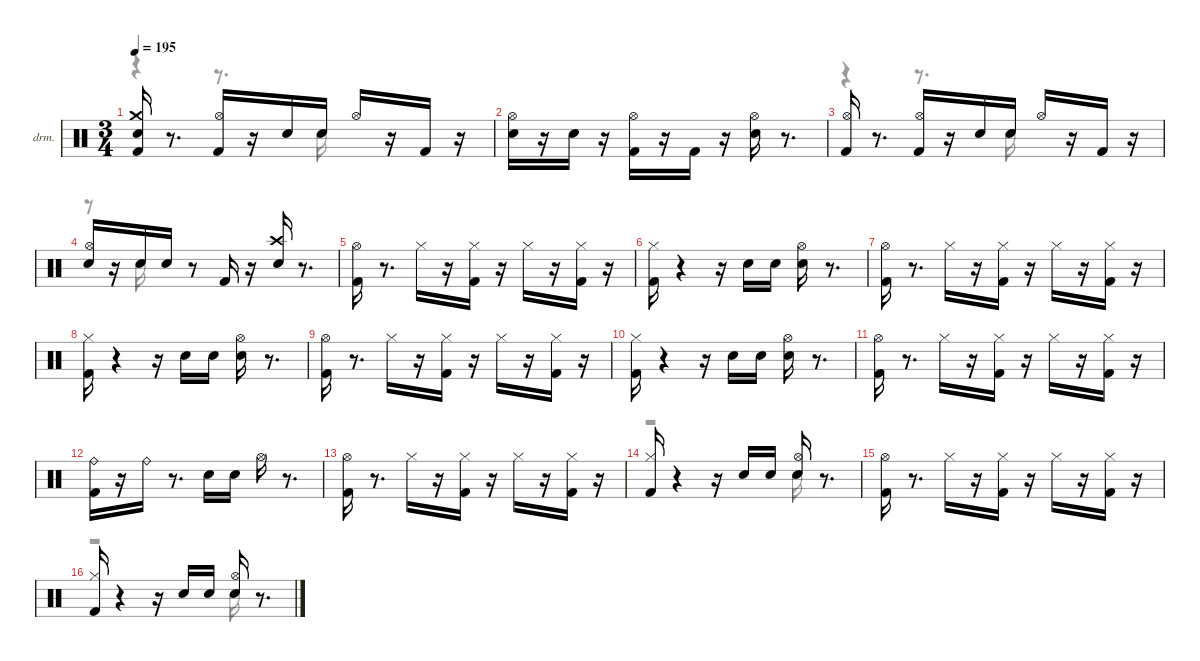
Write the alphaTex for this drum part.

\hideDynamics
\bracketExtendMode nobrackets
\firstSystemTrackNameOrientation horizontal
\otherSystemsTrackNameOrientation horizontal
\track ("EZdrummer 3" "drm.") {instrument percussion}
\staff {score}
\articulation defaults
\voice
\ts (3 4)
\tempo 195
\clef neutral
\ks aminor
("Kick (hit) 2" "Snare (hit) 2" "Crash medium (hit)").16{dy ff beam Up} r.8{d beam Up} ("Kick (hit) 2" "Hi-Hat (open)"{acc #}).16{dy mf beam Up} r.16{beam Up} "Snare (hit) 2".16{dy f beam Up} "Snare (hit) 2".16{dy ppp beam Up} "Hi-Hat (open)"{acc #}.16{dy mf beam Up} r.16{beam Up} "Kick (hit) 2".16{dy f beam Up} r.16{beam Up} |
("Snare (hit) 2" "Hi-Hat (open)"{acc #}).16{dy ff beam Down} r.16{beam Down} "Snare (hit) 2".16{dy ppp beam Down} r.16{beam Down} ("Kick (hit) 2" "Hi-Hat (open)"{acc #}).16{beam Down} r.16{beam Down} "Kick (hit) 2".16{dy ff beam Up} r.16{beam Up} ("Snare (hit) 2" "Hi-Hat (open)"{acc #}).16{dy f beam Down} r.8{d beam Down} |
("Kick (hit) 2" "Hi-Hat (open)"{acc #}).16{dy fff beam Up} r.8{d beam Up} ("Kick (hit) 2" "Hi-Hat (open)"{acc #}).16{dy f beam Up} r.16{beam Up} "Snare (hit) 2".16{beam Up} "Snare (hit) 2".16{dy ppp beam Up} "Hi-Hat (open)"{acc #}.16{dy ff beam Up} r.16{beam Up} "Kick (hit) 2".16{dy f beam Up} r.16{beam Up} |
("Snare (hit) 2" "Hi-Hat (open)"{acc #}).16{dy fff beam Up} r.16{beam Up} "Snare (hit) 2".16{dy f beam Up} "Snare (hit) 2".16{dy mp beam Up} r.8{beam Up} "Kick (hit) 2".16{dy ff beam Up} r.16{beam Up} ("Snare (hit) 2" "Crash high (hit)"{acc #}).16{dy fff beam Up} r.8{d beam Up} |
("Kick (hit) 2" "Hi-Hat (open)"{acc #}).16{dy ff beam Down} r.8{d beam Down} "Hi-Hat (closed)"{acc #}.16{dy f beam Down} r.16{beam Down} ("Kick (hit) 2" "Hi-Hat (closed)"{acc #}).16{dy ppp beam Down} r.16{beam Down} "Hi-Hat (closed)"{acc #}.16{dy f beam Down} r.16{beam Down} ("Kick (hit) 2" "Hi-Hat (closed)"{acc #}).16{dy mp beam Down} r.16{beam Down} |
("Kick (hit) 2" "Hi-Hat (closed)"{acc #}).16{dy ff beam Down} r.4{beam Down} r.16{beam Down} "Snare (hit) 2".16{dy pp beam Down} "Snare (hit) 2".16{dy ppp beam Down} ("Snare (hit) 2" "Hi-Hat (open)"{acc #}).16{dy ff beam Down} r.8{d beam Down} |
("Kick (hit) 2" "Hi-Hat (open)"{acc #}).16{beam Down} r.8{d beam Down} "Hi-Hat (closed)"{acc #}.16{dy f beam Down} r.16{beam Down} ("Kick (hit) 2" "Hi-Hat (closed)"{acc #}).16{beam Down} r.16{beam Down} "Hi-Hat (closed)"{acc #}.16{beam Down} r.16{beam Down} ("Kick (hit) 2" "Hi-Hat (closed)"{acc #}).16{dy mp beam Down} r.16{beam Down} |
("Kick (hit) 2" "Hi-Hat (closed)"{acc #}).16{dy ff beam Down} r.4{beam Down} r.16{beam Down} "Snare (hit) 2".16{dy pp beam Down} "Snare (hit) 2".16{dy ppp beam Down} ("Snare (hit) 2" "Hi-Hat (open)"{acc #}).16{dy ff beam Down} r.8{d beam Down} |
("Kick (hit) 2" "Hi-Hat (open)"{acc #}).16{beam Down} r.8{d beam Down} "Hi-Hat (closed)"{acc #}.16{dy f beam Down} r.16{beam Down} ("Kick (hit) 2" "Hi-Hat (closed)"{acc #}).16{dy ppp beam Down} r.16{beam Down} "Hi-Hat (closed)"{acc #}.16{dy f beam Down} r.16{beam Down} ("Kick (hit) 2" "Hi-Hat (closed)"{acc #}).16{dy ppp beam Down} r.16{beam Down} |
("Kick (hit) 2" "Hi-Hat (closed)"{acc #}).16{dy ff beam Down} r.4{beam Down} r.16{beam Down} "Snare (hit) 2".16{dy pp beam Down} "Snare (hit) 2".16{dy ppp beam Down} ("Snare (hit) 2" "Hi-Hat (open)"{acc #}).16{dy ff beam Down} r.8{d beam Down} |
("Kick (hit) 2" "Hi-Hat (open)"{acc #}).16{beam Down} r.8{d beam Down} "Hi-Hat (closed)"{acc #}.16{dy f beam Down} r.16{beam Down} ("Kick (hit) 2" "Hi-Hat (closed)"{acc #}).16{dy ppp beam Down} r.16{beam Down} "Hi-Hat (closed)"{acc #}.16{dy f beam Down} r.16{beam Down} ("Kick (hit) 2" "Hi-Hat (closed)"{acc #}).16{dy mp beam Down} r.16{beam Down} |
("Kick (hit) 2" "Ride (bell)").16{dy ff beam Down} r.16{beam Down} "Ride (bell)".16{beam Down} r.8{d beam Down} "Snare (hit) 2".16{dy f beam Down} "Snare (hit) 2".16{dy mp beam Down} "Hi-Hat (open)"{acc #}.16{dy ff beam Down} r.8{d beam Down} |
("Kick (hit) 2" "Hi-Hat (open)"{acc #}).16{beam Down} r.8{d beam Down} "Hi-Hat (closed)"{acc #}.16{dy f beam Down} r.16{beam Down} ("Kick (hit) 2" "Hi-Hat (closed)"{acc #}).16{beam Down} r.16{beam Down} "Hi-Hat (closed)"{acc #}.16{beam Down} r.16{beam Down} ("Kick (hit) 2" "Hi-Hat (closed)"{acc #}).16{dy mp beam Down} r.16{beam Down} |
("Kick (hit) 2" "Hi-Hat (closed)"{acc #}).16{dy ff beam Up} r.4{beam Up} r.16{beam Up} "Snare (hit) 2".16{dy pp beam Up} "Snare (hit) 2".16{dy ppp beam Up} ("Snare (hit) 2" "Hi-Hat (open)"{acc #}).16{dy ff beam Up} r.8{d beam Up} |
("Kick (hit) 2" "Hi-Hat (open)"{acc #}).16{beam Down} r.8{d beam Down} "Hi-Hat (closed)"{acc #}.16{dy f beam Down} r.16{beam Down} ("Kick (hit) 2" "Hi-Hat (closed)"{acc #}).16{beam Down} r.16{beam Down} "Hi-Hat (closed)"{acc #}.16{beam Down} r.16{beam Down} ("Kick (hit) 2" "Hi-Hat (closed)"{acc #}).16{dy ppp beam Down} r.16{beam Down} |
("Kick (hit) 2" "Hi-Hat (closed)"{acc #}).16{dy ff beam Up} r.4{beam Up} r.16{beam Up} "Snare (hit) 2".16{dy pp beam Up} "Snare (hit) 2".16{dy ppp beam Up} ("Snare (hit) 2" "Hi-Hat (open)"{acc #}).16{dy ff beam Up} r.8{d beam Up}
\voice
\clef neutral
\ottava regular
\simile none
\ks aminor
r.4{dy pp beam Down} r.8{d beam Down} "Snare (hit) 2".16{beam Down} |
|
r.4{beam Down} r.8{d beam Down} "Snare (hit) 2".16{beam Down} |
r.8{beam Down} "Snare (hit) 2".16{dy ppp beam Down} |
|
|
|
|
|
|
|
|
|
r.2{beam Down} "Snare (hit) 2".16{dy fff beam Down} |
|
r.2{beam Down} "Snare (hit) 2".16{beam Down}
